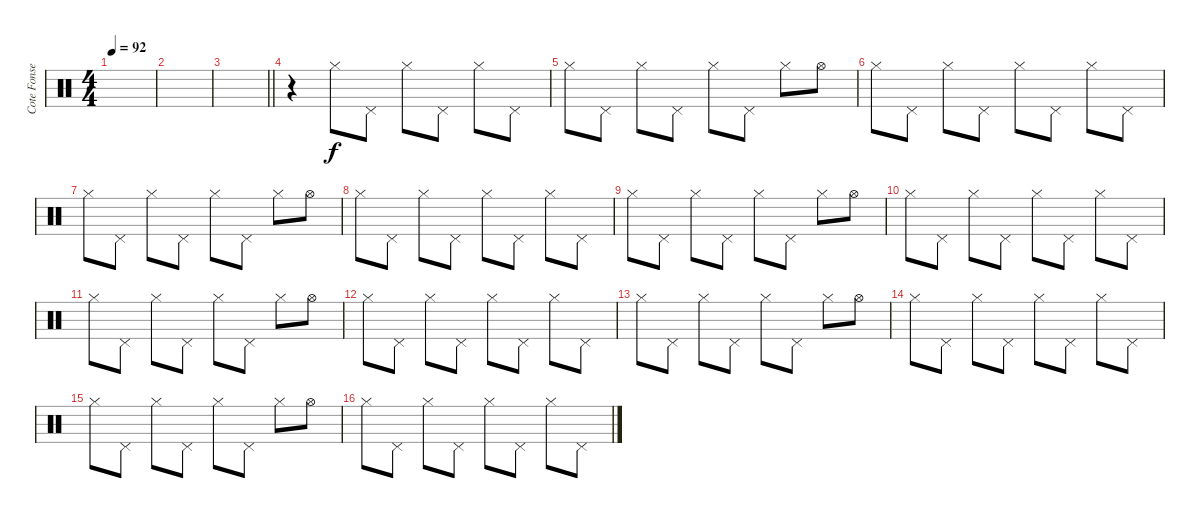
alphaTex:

\track ("Cote Fonsea" "Cote Fonse") {instrument percussion}
\staff {score}
\articulation defaults
\ts (4 4)
\tempo 92
\clef neutral
\ks c
|
|
\barLineRight lightlight
|
r.4 "Hi-Hat (closed)".8 "Pedal Hi-Hat (hit)".8 "Hi-Hat (closed)".8 "Pedal Hi-Hat (hit)".8 "Hi-Hat (closed)".8 "Pedal Hi-Hat (hit)".8 |
"Hi-Hat (closed)".8 "Pedal Hi-Hat (hit)".8 "Hi-Hat (closed)".8 "Pedal Hi-Hat (hit)".8 "Hi-Hat (closed)".8 "Pedal Hi-Hat (hit)".8 "Hi-Hat (closed)".8 "Hi-Hat (open)".8 |
"Hi-Hat (closed)".8 "Pedal Hi-Hat (hit)".8 "Hi-Hat (closed)".8 "Pedal Hi-Hat (hit)".8 "Hi-Hat (closed)".8 "Pedal Hi-Hat (hit)".8 "Hi-Hat (closed)".8 "Pedal Hi-Hat (hit)".8 |
"Hi-Hat (closed)".8 "Pedal Hi-Hat (hit)".8 "Hi-Hat (closed)".8 "Pedal Hi-Hat (hit)".8 "Hi-Hat (closed)".8 "Pedal Hi-Hat (hit)".8 "Hi-Hat (closed)".8 "Hi-Hat (open)".8 |
"Hi-Hat (closed)".8 "Pedal Hi-Hat (hit)".8 "Hi-Hat (closed)".8 "Pedal Hi-Hat (hit)".8 "Hi-Hat (closed)".8 "Pedal Hi-Hat (hit)".8 "Hi-Hat (closed)".8 "Pedal Hi-Hat (hit)".8 |
"Hi-Hat (closed)".8 "Pedal Hi-Hat (hit)".8 "Hi-Hat (closed)".8 "Pedal Hi-Hat (hit)".8 "Hi-Hat (closed)".8 "Pedal Hi-Hat (hit)".8 "Hi-Hat (closed)".8 "Hi-Hat (open)".8 |
"Hi-Hat (closed)".8 "Pedal Hi-Hat (hit)".8 "Hi-Hat (closed)".8 "Pedal Hi-Hat (hit)".8 "Hi-Hat (closed)".8 "Pedal Hi-Hat (hit)".8 "Hi-Hat (closed)".8 "Pedal Hi-Hat (hit)".8 |
"Hi-Hat (closed)".8 "Pedal Hi-Hat (hit)".8 "Hi-Hat (closed)".8 "Pedal Hi-Hat (hit)".8 "Hi-Hat (closed)".8 "Pedal Hi-Hat (hit)".8 "Hi-Hat (closed)".8 "Hi-Hat (open)".8 |
"Hi-Hat (closed)".8 "Pedal Hi-Hat (hit)".8 "Hi-Hat (closed)".8 "Pedal Hi-Hat (hit)".8 "Hi-Hat (closed)".8 "Pedal Hi-Hat (hit)".8 "Hi-Hat (closed)".8 "Pedal Hi-Hat (hit)".8 |
"Hi-Hat (closed)".8 "Pedal Hi-Hat (hit)".8 "Hi-Hat (closed)".8 "Pedal Hi-Hat (hit)".8 "Hi-Hat (closed)".8 "Pedal Hi-Hat (hit)".8 "Hi-Hat (closed)".8 "Hi-Hat (open)".8 |
"Hi-Hat (closed)".8 "Pedal Hi-Hat (hit)".8 "Hi-Hat (closed)".8 "Pedal Hi-Hat (hit)".8 "Hi-Hat (closed)".8 "Pedal Hi-Hat (hit)".8 "Hi-Hat (closed)".8 "Pedal Hi-Hat (hit)".8 |
"Hi-Hat (closed)".8 "Pedal Hi-Hat (hit)".8 "Hi-Hat (closed)".8 "Pedal Hi-Hat (hit)".8 "Hi-Hat (closed)".8 "Pedal Hi-Hat (hit)".8 "Hi-Hat (closed)".8 "Hi-Hat (open)".8 |
"Hi-Hat (closed)".8 "Pedal Hi-Hat (hit)".8 "Hi-Hat (closed)".8 "Pedal Hi-Hat (hit)".8 "Hi-Hat (closed)".8 "Pedal Hi-Hat (hit)".8 "Hi-Hat (closed)".8 "Pedal Hi-Hat (hit)".8
